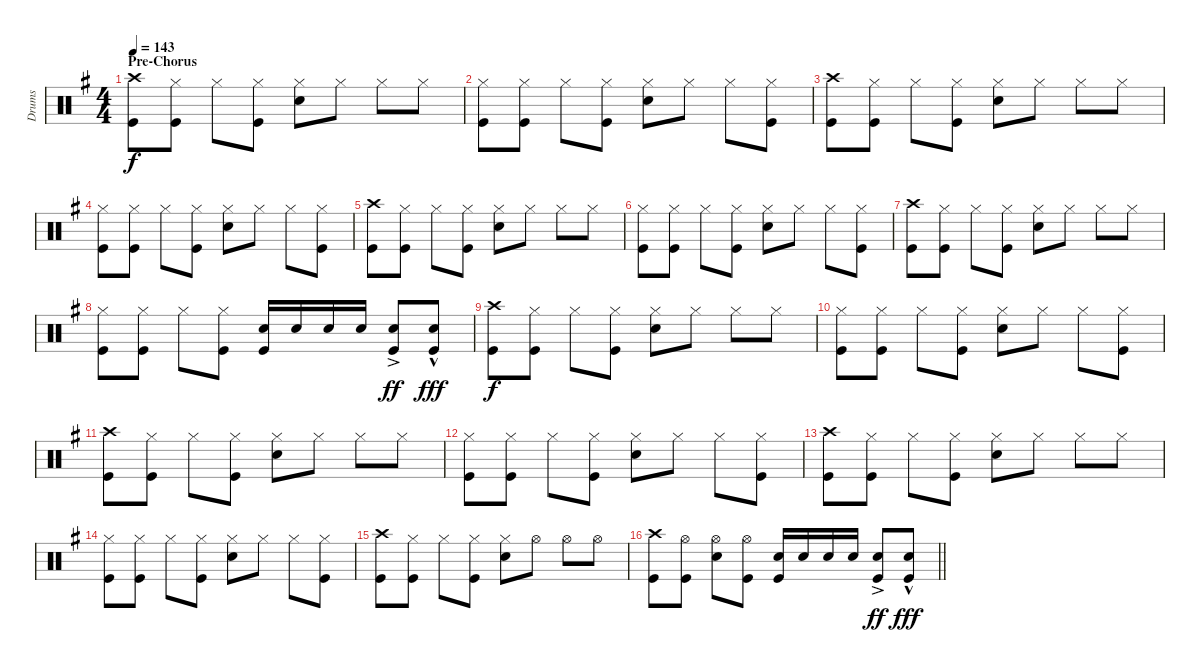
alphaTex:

\track ("Drums" "Drums") {instrument percussion}
\staff {score}
\articulation defaults
\ts (4 4)
\section ("" "Pre-Chorus")
\tempo 143
\clef neutral
\ks eminor
("Kick (hit)" "Crash high (hit)").8{dy f} ("Kick (hit)" "Hi-Hat (closed)").8 "Hi-Hat (closed)".8 ("Kick (hit)" "Hi-Hat (closed)").8 ("Snare (hit) 2" "Hi-Hat (closed)").8 "Hi-Hat (closed)".8 "Hi-Hat (closed)".8 "Hi-Hat (closed)".8 |
("Kick (hit)" "Hi-Hat (closed)").8 ("Kick (hit)" "Hi-Hat (closed)").8 "Hi-Hat (closed)".8 ("Kick (hit)" "Hi-Hat (closed)").8 ("Snare (hit) 2" "Hi-Hat (closed)").8 "Hi-Hat (closed)".8 "Hi-Hat (closed)".8 ("Kick (hit)" "Hi-Hat (closed)").8 |
("Kick (hit)" "Crash high (hit)").8 ("Kick (hit)" "Hi-Hat (closed)").8 "Hi-Hat (closed)".8 ("Kick (hit)" "Hi-Hat (closed)").8 ("Snare (hit) 2" "Hi-Hat (closed)").8 "Hi-Hat (closed)".8 "Hi-Hat (closed)".8 "Hi-Hat (closed)".8 |
("Kick (hit)" "Hi-Hat (closed)").8 ("Kick (hit)" "Hi-Hat (closed)").8 "Hi-Hat (closed)".8 ("Kick (hit)" "Hi-Hat (closed)").8 ("Snare (hit) 2" "Hi-Hat (closed)").8 "Hi-Hat (closed)".8 "Hi-Hat (closed)".8 ("Kick (hit)" "Hi-Hat (closed)").8 |
("Kick (hit)" "Crash high (hit)").8 ("Kick (hit)" "Hi-Hat (closed)").8 "Hi-Hat (closed)".8 ("Kick (hit)" "Hi-Hat (closed)").8 ("Snare (hit) 2" "Hi-Hat (closed)").8 "Hi-Hat (closed)".8 "Hi-Hat (closed)".8 "Hi-Hat (closed)".8 |
("Kick (hit)" "Hi-Hat (closed)").8 ("Kick (hit)" "Hi-Hat (closed)").8 "Hi-Hat (closed)".8 ("Kick (hit)" "Hi-Hat (closed)").8 ("Snare (hit) 2" "Hi-Hat (closed)").8 "Hi-Hat (closed)".8 "Hi-Hat (closed)".8 ("Kick (hit)" "Hi-Hat (closed)").8 |
("Kick (hit)" "Crash high (hit)").8 ("Kick (hit)" "Hi-Hat (closed)").8 "Hi-Hat (closed)".8 ("Kick (hit)" "Hi-Hat (closed)").8 ("Snare (hit) 2" "Hi-Hat (closed)").8 "Hi-Hat (closed)".8 "Hi-Hat (closed)".8 "Hi-Hat (closed)".8 |
("Kick (hit)" "Hi-Hat (closed)").8 ("Kick (hit)" "Hi-Hat (closed)").8 "Hi-Hat (closed)".8 ("Kick (hit)" "Hi-Hat (closed)").8 ("Snare (hit) 2" "Kick (hit)").16 "Snare (hit) 2".16 "Snare (hit) 2".16 "Snare (hit) 2".16 ("Snare (hit) 2"{ac} "Kick (hit)"{ac}).8{dy ff} ("Snare (hit) 2"{hac} "Kick (hit)"{hac}).8{dy fff} |
("Kick (hit)" "Crash high (hit)").8{dy f} ("Kick (hit)" "Hi-Hat (closed)").8 "Hi-Hat (closed)".8 ("Kick (hit)" "Hi-Hat (closed)").8 ("Snare (hit) 2" "Hi-Hat (closed)").8 "Hi-Hat (closed)".8 "Hi-Hat (closed)".8 "Hi-Hat (closed)".8 |
("Kick (hit)" "Hi-Hat (closed)").8 ("Kick (hit)" "Hi-Hat (closed)").8 "Hi-Hat (closed)".8 ("Kick (hit)" "Hi-Hat (closed)").8 ("Snare (hit) 2" "Hi-Hat (closed)").8 "Hi-Hat (closed)".8 "Hi-Hat (closed)".8 ("Kick (hit)" "Hi-Hat (closed)").8 |
("Kick (hit)" "Crash high (hit)").8 ("Kick (hit)" "Hi-Hat (closed)").8 "Hi-Hat (closed)".8 ("Kick (hit)" "Hi-Hat (closed)").8 ("Snare (hit) 2" "Hi-Hat (closed)").8 "Hi-Hat (closed)".8 "Hi-Hat (closed)".8 "Hi-Hat (closed)".8 |
("Kick (hit)" "Hi-Hat (closed)").8 ("Kick (hit)" "Hi-Hat (closed)").8 "Hi-Hat (closed)".8 ("Kick (hit)" "Hi-Hat (closed)").8 ("Snare (hit) 2" "Hi-Hat (closed)").8 "Hi-Hat (closed)".8 "Hi-Hat (closed)".8 ("Kick (hit)" "Hi-Hat (closed)").8 |
("Kick (hit)" "Crash high (hit)").8 ("Kick (hit)" "Hi-Hat (closed)").8 "Hi-Hat (closed)".8 ("Kick (hit)" "Hi-Hat (closed)").8 ("Snare (hit) 2" "Hi-Hat (closed)").8 "Hi-Hat (closed)".8 "Hi-Hat (closed)".8 "Hi-Hat (closed)".8 |
("Kick (hit)" "Hi-Hat (closed)").8 ("Kick (hit)" "Hi-Hat (closed)").8 "Hi-Hat (closed)".8 ("Kick (hit)" "Hi-Hat (closed)").8 ("Snare (hit) 2" "Hi-Hat (closed)").8 "Hi-Hat (closed)".8 "Hi-Hat (closed)".8 ("Kick (hit)" "Hi-Hat (closed)").8 |
("Kick (hit)" "Crash high (hit)").8 ("Kick (hit)" "Hi-Hat (closed)").8 "Hi-Hat (closed)".8 ("Kick (hit)" "Hi-Hat (closed)").8 ("Snare (hit) 2" "Hi-Hat (closed)").8 "Hi-Hat (open)".8 "Hi-Hat (open)".8 "Hi-Hat (open)".8 |
\barLineRight lightlight
("Kick (hit)" "Crash high (hit)").8 ("Kick (hit)" "Hi-Hat (open)").8 ("Snare (hit) 2" "Hi-Hat (open)").8 ("Kick (hit)" "Hi-Hat (open)").8 ("Snare (hit) 2" "Kick (hit)").16 "Snare (hit) 2".16 "Snare (hit) 2".16 "Snare (hit) 2".16 ("Snare (hit) 2"{ac} "Kick (hit)"{ac}).8{dy ff} ("Snare (hit) 2"{hac} "Kick (hit)"{hac}).8{dy fff}
